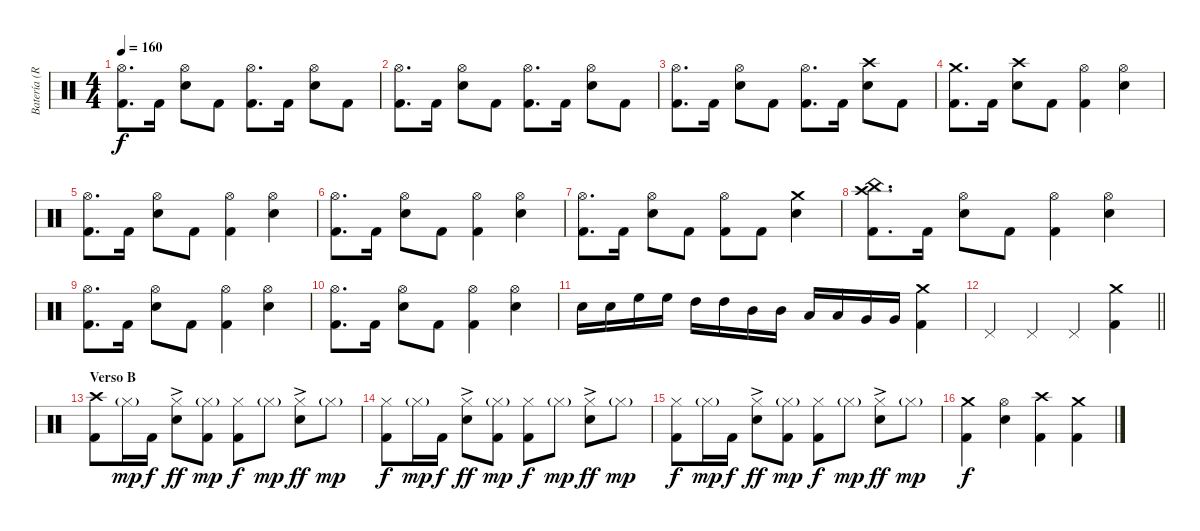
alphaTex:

\track ("Batería (Robert)" "Batería (R") {instrument percussion}
\staff {score}
\articulation defaults
\ts (4 4)
\tempo 160
\clef neutral
\ks c
("Hi-Hat (open)" "Kick (hit) 2").8{d dy f} "Kick (hit) 2".16 ("Hi-Hat (open)" "Electric Snare (hit)").8 "Kick (hit) 2".8 ("Kick (hit) 2" "Hi-Hat (open)").8{d} "Kick (hit) 2".16 ("Hi-Hat (open)" "Electric Snare (hit)").8 "Kick (hit) 2".8 |
("Hi-Hat (open)" "Kick (hit) 2").8{d} "Kick (hit) 2".16 ("Hi-Hat (open)" "Electric Snare (hit)").8 "Kick (hit) 2".8 ("Kick (hit) 2" "Hi-Hat (open)").8{d} "Kick (hit) 2".16 ("Hi-Hat (open)" "Electric Snare (hit)").8 "Kick (hit) 2".8 |
("Hi-Hat (open)" "Kick (hit) 2").8{d} "Kick (hit) 2".16 ("Hi-Hat (open)" "Electric Snare (hit)").8 "Kick (hit) 2".8 ("Kick (hit) 2" "Hi-Hat (open)").8{d} "Kick (hit) 2".16 ("Crash high (hit)" "Electric Snare (hit)").8 "Kick (hit) 2".8 |
("Crash medium (hit)" "Kick (hit) 2").8{d} "Kick (hit) 2".16 ("Crash high (hit)" "Electric Snare (hit)").8 "Kick (hit) 2".8 ("Kick (hit) 2" "Hi-Hat (open)").4 ("Hi-Hat (open)" "Electric Snare (hit)").4 |
("Hi-Hat (open)" "Kick (hit) 2").8{d} "Kick (hit) 2".16 ("Hi-Hat (open)" "Electric Snare (hit)").8 "Kick (hit) 2".8 ("Kick (hit) 2" "Hi-Hat (open)").4 ("Hi-Hat (open)" "Electric Snare (hit)").4 |
("Hi-Hat (open)" "Kick (hit) 2").8{d} "Kick (hit) 2".16 ("Hi-Hat (open)" "Electric Snare (hit)").8 "Kick (hit) 2".8 ("Kick (hit) 2" "Hi-Hat (open)").4 ("Hi-Hat (open)" "Electric Snare (hit)").4 |
("Hi-Hat (open)" "Kick (hit) 2").8{d} "Kick (hit) 2".16 ("Hi-Hat (open)" "Electric Snare (hit)").8 "Kick (hit) 2".8 ("Kick (hit) 2" "Hi-Hat (open)").8 "Kick (hit) 2".8 ("Crash medium (hit)" "Electric Snare (hit)").4 |
("China (hit)" "Crash high (hit)" "Kick (hit) 2").8{d} "Kick (hit) 2".16 ("Hi-Hat (open)" "Electric Snare (hit)").8 "Kick (hit) 2".8 ("Kick (hit) 2" "Hi-Hat (open)").4 ("Hi-Hat (open)" "Electric Snare (hit)").4 |
("Hi-Hat (open)" "Kick (hit) 2").8{d} "Kick (hit) 2".16 ("Hi-Hat (open)" "Electric Snare (hit)").8 "Kick (hit) 2".8 ("Kick (hit) 2" "Hi-Hat (open)").4 ("Hi-Hat (open)" "Electric Snare (hit)").4 |
("Hi-Hat (open)" "Kick (hit) 2").8{d} "Kick (hit) 2".16 ("Hi-Hat (open)" "Electric Snare (hit)").8 "Kick (hit) 2".8 ("Kick (hit) 2" "Hi-Hat (open)").4 ("Hi-Hat (open)" "Electric Snare (hit)").4 |
"Electric Snare (hit)".16 "Electric Snare (hit)".16 "High Floor Tom (hit)".16 "High Floor Tom (hit)".16 "High Tom (hit)".16 "High Tom (hit)".16 "Mid Tom (hit)".16 "Mid Tom (hit)".16 "Low Tom (hit)".16 "Low Tom (hit)".16 "Very Low Tom (hit)".16 "Very Low Tom (hit)".16 ("Kick (hit) 2" "Crash medium (hit)").4 |
\barLineRight lightlight "Pedal Hi-Hat (hit)".4 "Pedal Hi-Hat (hit)".4 "Pedal Hi-Hat (hit)".4
("Kick (hit) 2" "Crash medium (hit)").4 |
\section ("" "Verso B")
("Crash high (hit)" "Kick (hit) 2").8 "Hi-Hat (closed)"{g}.16{dy mp} "Kick (hit) 2".16{dy f} ("Hi-Hat (closed)"{ac} "Electric Snare (hit)").8{dy ff} ("Hi-Hat (closed)"{g} "Kick (hit) 2").8{dy mp} ("Hi-Hat (closed)" "Kick (hit) 2").8{dy f} "Hi-Hat (closed)"{g}.8{dy mp} ("Hi-Hat (closed)"{ac} "Electric Snare (hit)").8{dy ff} "Hi-Hat (closed)"{g}.8{dy mp} |
("Hi-Hat (closed)" "Kick (hit) 2").8{dy f} "Hi-Hat (closed)"{g}.16{dy mp} "Kick (hit) 2".16{dy f} ("Hi-Hat (closed)"{ac} "Electric Snare (hit)").8{dy ff} ("Hi-Hat (closed)"{g} "Kick (hit) 2").8{dy mp} ("Hi-Hat (closed)" "Kick (hit) 2").8{dy f} "Hi-Hat (closed)"{g}.8{dy mp} ("Hi-Hat (closed)"{ac} "Electric Snare (hit)").8{dy ff} "Hi-Hat (closed)"{g}.8{dy mp} |
("Hi-Hat (closed)" "Kick (hit) 2").8{dy f} "Hi-Hat (closed)"{g}.16{dy mp} "Kick (hit) 2".16{dy f} ("Hi-Hat (closed)"{ac} "Electric Snare (hit)").8{dy ff} ("Hi-Hat (closed)"{g} "Kick (hit) 2").8{dy mp} ("Hi-Hat (closed)" "Kick (hit) 2").8{dy f} "Hi-Hat (closed)"{g}.8{dy mp} ("Hi-Hat (closed)"{ac} "Electric Snare (hit)").8{dy ff} "Hi-Hat (closed)"{g}.8{dy mp} |
("Kick (hit) 2" "Crash medium (hit)").4{dy f} ("Hi-Hat (open)" "Electric Snare (hit)").4 ("Kick (hit) 2" "Crash high (hit)").4 ("Kick (hit) 2" "Crash medium (hit)").4
